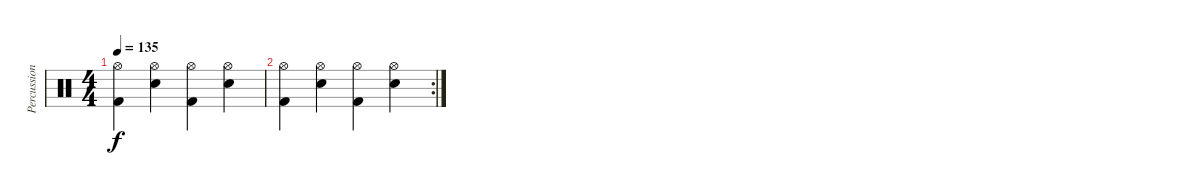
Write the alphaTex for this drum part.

\track ("Percussion" "Percussion") {instrument percussion}
\staff {score}
\articulation defaults
\ts (4 4)
\tempo 135
\clef neutral
\ks c
("Hi-Hat (open)" "Kick (hit) 2").4{dy f} ("Hi-Hat (open)" "Electric Snare (hit)").4 ("Hi-Hat (open)" "Kick (hit) 2").4 ("Hi-Hat (open)" "Electric Snare (hit)").4 |
\rc 2
("Hi-Hat (open)" "Kick (hit) 2").4 ("Hi-Hat (open)" "Electric Snare (hit)").4 ("Hi-Hat (open)" "Kick (hit) 2").4 ("Hi-Hat (open)" "Electric Snare (hit)").4
